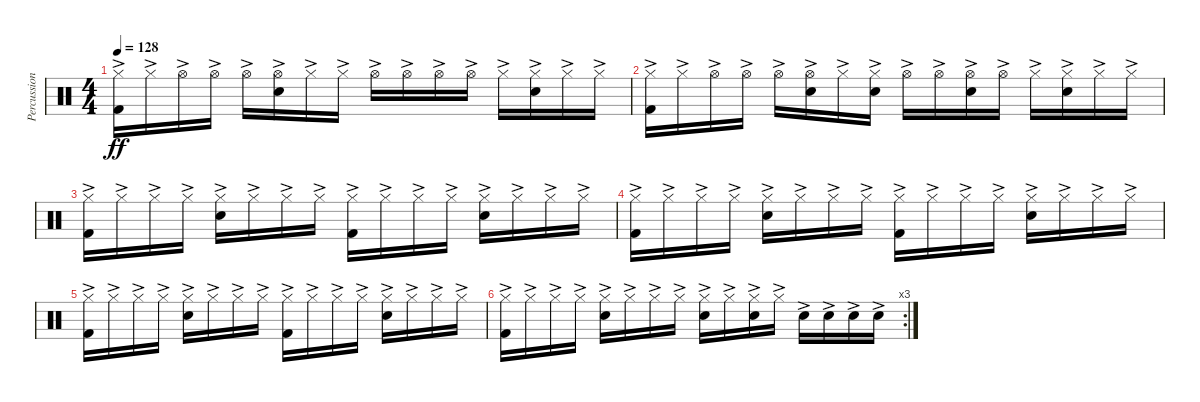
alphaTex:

\track ("Percussion" "Percussion") {instrument percussion}
\staff {score}
\articulation defaults
\ts (4 4)
\tempo 128
\clef neutral
\ks c
("Hi-Hat (closed)"{ac} "Kick (hit) 2"{ac}).16{dy ff} "Hi-Hat (closed)"{ac}.16 "Hi-Hat (open)"{ac}.16 "Hi-Hat (open)"{ac}.16 "Hi-Hat (open)"{ac}.16 ("Hi-Hat (open)"{ac} "Snare (hit) 2"{ac}).16 "Hi-Hat (closed)"{ac}.16 "Hi-Hat (closed)"{ac}.16 "Hi-Hat (open)"{ac}.16 "Hi-Hat (open)"{ac}.16 "Hi-Hat (open)"{ac}.16 "Hi-Hat (open)"{ac}.16 "Hi-Hat (closed)"{ac}.16 ("Hi-Hat (closed)"{ac} "Snare (hit) 2"{ac}).16 "Hi-Hat (closed)"{ac}.16 "Hi-Hat (closed)"{ac}.16 |
("Hi-Hat (closed)"{ac} "Kick (hit) 2"{ac}).16 "Hi-Hat (closed)"{ac}.16 "Hi-Hat (open)"{ac}.16 "Hi-Hat (open)"{ac}.16 "Hi-Hat (open)"{ac}.16 ("Hi-Hat (open)"{ac} "Snare (hit) 2"{ac}).16 "Hi-Hat (closed)"{ac}.16 ("Hi-Hat (closed)"{ac} "Snare (hit) 2"{ac}).16 "Hi-Hat (open)"{ac}.16 "Hi-Hat (open)"{ac}.16 ("Hi-Hat (open)"{ac} "Snare (hit) 2"{ac}).16 "Hi-Hat (open)"{ac}.16 "Hi-Hat (closed)"{ac}.16 ("Hi-Hat (closed)"{ac} "Snare (hit) 2"{ac}).16 "Hi-Hat (closed)"{ac}.16 "Hi-Hat (closed)"{ac}.16 |
("Hi-Hat (closed)"{ac} "Kick (hit) 2"{ac}).16 "Hi-Hat (closed)"{ac}.16 "Hi-Hat (closed)"{ac}.16 "Hi-Hat (closed)"{ac}.16 ("Hi-Hat (closed)"{ac} "Snare (hit) 2"{ac}).16 "Hi-Hat (closed)"{ac}.16 "Hi-Hat (closed)"{ac}.16 "Hi-Hat (closed)"{ac}.16 ("Hi-Hat (closed)"{ac} "Kick (hit) 2"{ac}).16 "Hi-Hat (closed)"{ac}.16 "Hi-Hat (closed)"{ac}.16 "Hi-Hat (closed)"{ac}.16 ("Hi-Hat (closed)"{ac} "Snare (hit) 2"{ac}).16 "Hi-Hat (closed)"{ac}.16 "Hi-Hat (closed)"{ac}.16 "Hi-Hat (closed)"{ac}.16 |
("Hi-Hat (closed)"{ac} "Kick (hit) 2"{ac}).16 "Hi-Hat (closed)"{ac}.16 "Hi-Hat (closed)"{ac}.16 "Hi-Hat (closed)"{ac}.16 ("Hi-Hat (closed)"{ac} "Snare (hit) 2"{ac}).16 "Hi-Hat (closed)"{ac}.16 "Hi-Hat (closed)"{ac}.16 "Hi-Hat (closed)"{ac}.16 ("Hi-Hat (closed)"{ac} "Kick (hit) 2"{ac}).16 "Hi-Hat (closed)"{ac}.16 "Hi-Hat (closed)"{ac}.16 "Hi-Hat (closed)"{ac}.16 ("Hi-Hat (closed)"{ac} "Snare (hit) 2"{ac}).16 "Hi-Hat (closed)"{ac}.16 "Hi-Hat (closed)"{ac}.16 "Hi-Hat (closed)"{ac}.16 |
("Hi-Hat (closed)"{ac} "Kick (hit) 2"{ac}).16 "Hi-Hat (closed)"{ac}.16 "Hi-Hat (closed)"{ac}.16 "Hi-Hat (closed)"{ac}.16 ("Hi-Hat (closed)"{ac} "Snare (hit) 2"{ac}).16 "Hi-Hat (closed)"{ac}.16 "Hi-Hat (closed)"{ac}.16 "Hi-Hat (closed)"{ac}.16 ("Hi-Hat (closed)"{ac} "Kick (hit) 2"{ac}).16 "Hi-Hat (closed)"{ac}.16 "Hi-Hat (closed)"{ac}.16 "Hi-Hat (closed)"{ac}.16 ("Hi-Hat (closed)"{ac} "Snare (hit) 2"{ac}).16 "Hi-Hat (closed)"{ac}.16 "Hi-Hat (closed)"{ac}.16 "Hi-Hat (closed)"{ac}.16 |
\rc 3
("Hi-Hat (closed)"{ac} "Kick (hit) 2"{ac}).16 "Hi-Hat (closed)"{ac}.16 "Hi-Hat (closed)"{ac}.16 "Hi-Hat (closed)"{ac}.16 ("Hi-Hat (closed)"{ac} "Snare (hit) 2"{ac}).16 "Hi-Hat (closed)"{ac}.16 "Hi-Hat (closed)"{ac}.16 "Hi-Hat (closed)"{ac}.16 ("Hi-Hat (closed)"{ac} "Snare (hit) 2"{ac}).16 "Hi-Hat (closed)"{ac}.16 ("Hi-Hat (closed)"{ac} "Snare (hit) 2"{ac}).16 "Hi-Hat (closed)"{ac}.16 "Snare (hit) 2"{ac}.16 "Snare (hit) 2"{ac}.16 "Snare (hit) 2"{ac}.16 "Snare (hit) 2"{ac}.16
